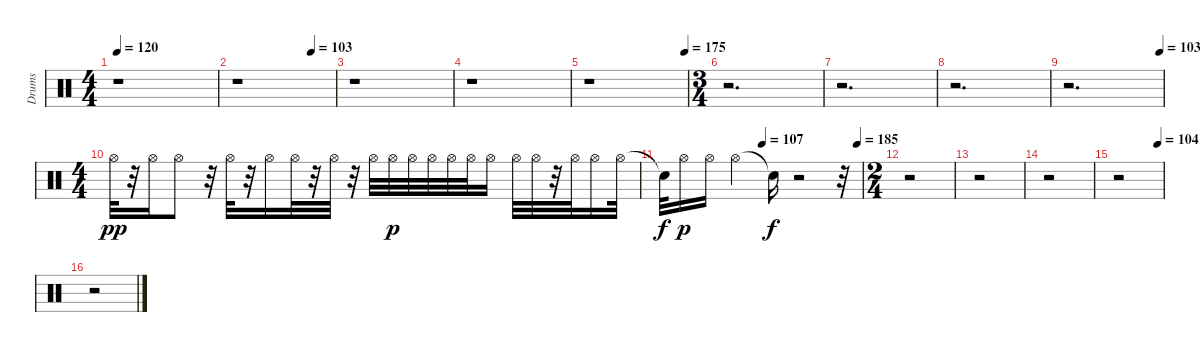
\track ("Drums" "Drums") {instrument percussion}
\staff {score}
\articulation defaults
\ts (4 4)
\tempo 120
\clef neutral
\ks c
r.1{dy pp} |
\tempo (103 0.7604166666666666)
r.1 |
r.1 |
r.1 |
\tempo (175 0.9791666666666666)
r.1 |
\ts (3 4)
r.2{d} |
r.2{d} |
r.2{d} |
\tempo (103 0.9722222222222222)
r.2{d} |
\ts (4 4)
"Hi-Hat (open)".32 r.32 "Hi-Hat (open)".16 "Hi-Hat (open)".8 r.32 "Hi-Hat (open)".32 r.32 "Hi-Hat (open)".16 "Hi-Hat (open)".32 r.32 "Hi-Hat (open)".32 r.32 "Hi-Hat (open)".32 "Hi-Hat (open)".32{dy p} "Hi-Hat (open)".32 "Hi-Hat (open)".32 "Hi-Hat (open)".32 "Hi-Hat (open)".32 "Hi-Hat (open)".16 "Hi-Hat (open)".32 "Hi-Hat (open)".32 r.32 "Hi-Hat (open)".32 "Hi-Hat (open)".16 "Hi-Hat (open)".32 |
\tempo (107 0.5)
\tempo (185 0.9791666666666666)
"Snare (hit)"{t}.32{dy f} "Hi-Hat (open)".16{dy p} "Hi-Hat (open)".16 "Hi-Hat (open)".4 "Snare (hit)"{t}.16{dy f} r.2 r.32 |
\ts (2 4)
r.2 |
r.2 |
r.2 |
\tempo (104 0.8958333333333334)
r.2 |
r.2
